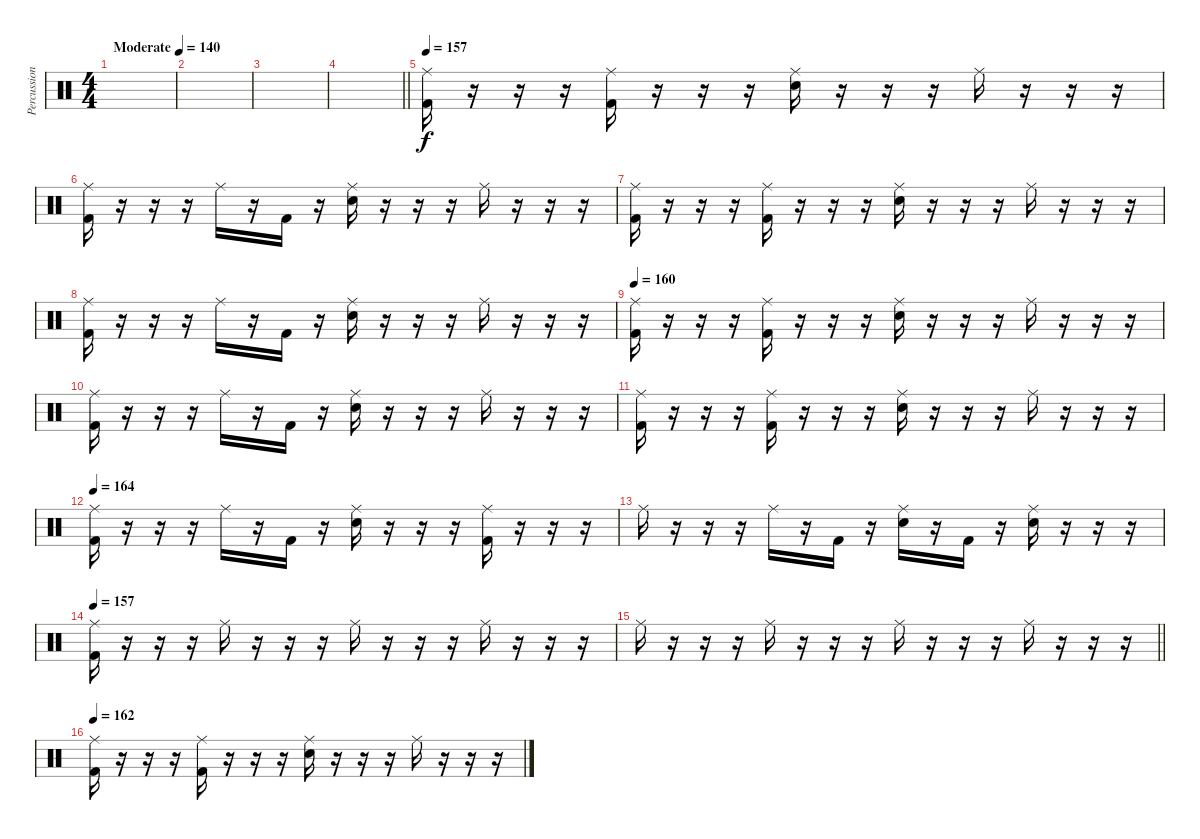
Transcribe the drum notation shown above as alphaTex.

\track ("Percussion" "Percussion") {instrument percussion}
\staff {score}
\articulation defaults
\ts (4 4)
\tempo (140 "Moderate")
\clef neutral
\ks c
|
|
|
\barLineRight lightlight
|
\section ("" "")
\tempo 157
("Ride (middle)" "Kick (hit) 2").16 r.16 r.16 r.16 ("Ride (middle)" "Kick (hit) 2").16 r.16 r.16 r.16 ("Ride (middle)" "Electric Snare (hit)").16 r.16 r.16 r.16 "Ride (middle)".16 r.16 r.16 r.16 |
("Ride (middle)" "Kick (hit) 2").16 r.16 r.16 r.16 "Ride (middle)".16 r.16 "Kick (hit) 2".16 r.16 ("Ride (middle)" "Electric Snare (hit)").16 r.16 r.16 r.16 "Ride (middle)".16 r.16 r.16 r.16 |
("Ride (middle)" "Kick (hit) 2").16 r.16 r.16 r.16 ("Ride (middle)" "Kick (hit) 2").16 r.16 r.16 r.16 ("Ride (middle)" "Electric Snare (hit)").16 r.16 r.16 r.16 "Ride (middle)".16 r.16 r.16 r.16 |
("Ride (middle)" "Kick (hit) 2").16 r.16 r.16 r.16 "Ride (middle)".16 r.16 "Kick (hit) 2".16 r.16 ("Ride (middle)" "Electric Snare (hit)").16 r.16 r.16 r.16 "Ride (middle)".16 r.16 r.16 r.16 |
\tempo 160
("Ride (middle)" "Kick (hit) 2").16 r.16 r.16 r.16 ("Ride (middle)" "Kick (hit) 2").16 r.16 r.16 r.16 ("Ride (middle)" "Electric Snare (hit)").16 r.16 r.16 r.16 "Ride (middle)".16 r.16 r.16 r.16 |
("Ride (middle)" "Kick (hit) 2").16 r.16 r.16 r.16 "Ride (middle)".16 r.16 "Kick (hit) 2".16 r.16 ("Ride (middle)" "Electric Snare (hit)").16 r.16 r.16 r.16 "Ride (middle)".16 r.16 r.16 r.16 |
("Ride (middle)" "Kick (hit) 2").16 r.16 r.16 r.16 ("Ride (middle)" "Kick (hit) 2").16 r.16 r.16 r.16 ("Ride (middle)" "Electric Snare (hit)").16 r.16 r.16 r.16 "Ride (middle)".16 r.16 r.16 r.16 |
\tempo 164
("Ride (middle)" "Kick (hit) 2").16 r.16 r.16 r.16 "Ride (middle)".16 r.16 "Kick (hit) 2".16 r.16 ("Ride (middle)" "Electric Snare (hit)").16 r.16 r.16 r.16 ("Ride (middle)" "Kick (hit) 2").16 r.16 r.16 r.16 |
"Ride (middle)".16 r.16 r.16 r.16 "Ride (middle)".16 r.16 "Kick (hit) 2".16 r.16 ("Ride (middle)" "Electric Snare (hit)").16 r.16 "Kick (hit) 2".16 r.16 ("Ride (middle)" "Electric Snare (hit)").16 r.16 r.16 r.16 |
\tempo 157
("Ride (middle)" "Kick (hit) 2").16 r.16 r.16 r.16 "Ride (middle)".16 r.16 r.16 r.16 "Ride (middle)".16 r.16 r.16 r.16 "Ride (middle)".16 r.16 r.16 r.16 |
\barLineRight lightlight "Ride (middle)".16
r.16 r.16 r.16 "Ride (middle)".16 r.16 r.16 r.16 "Ride (middle)".16 r.16 r.16 r.16 "Ride (middle)".16 r.16 r.16 r.16 |
\section ("" "")
\tempo 162
("Ride (middle)" "Kick (hit) 2").16 r.16 r.16 r.16 ("Ride (middle)" "Kick (hit) 2").16 r.16 r.16 r.16 ("Ride (middle)" "Electric Snare (hit)").16 r.16 r.16 r.16 "Ride (middle)".16 r.16 r.16 r.16
